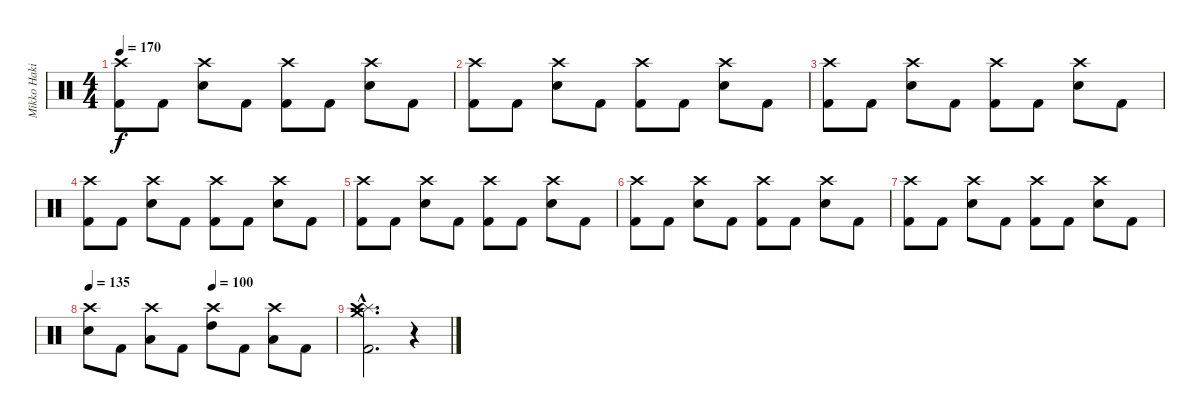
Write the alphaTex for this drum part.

\track ("Mikko Hakila - drums" "Mikko Haki") {instrument percussion}
\staff {score}
\articulation defaults
\ts (4 4)
\tempo 170
\clef neutral
\ks c
("Crash high (hit)" "Kick (hit) 2").8{dy f} "Kick (hit) 2".8 ("Crash high (hit)" "Snare (hit) 2").8 "Kick (hit) 2".8 ("Crash high (hit)" "Kick (hit) 2").8 "Kick (hit) 2".8 ("Crash high (hit)" "Snare (hit) 2").8 "Kick (hit) 2".8 |
("Crash high (hit)" "Kick (hit) 2").8 "Kick (hit) 2".8 ("Crash high (hit)" "Snare (hit) 2").8 "Kick (hit) 2".8 ("Crash high (hit)" "Kick (hit) 2").8 "Kick (hit) 2".8 ("Crash high (hit)" "Snare (hit) 2").8 "Kick (hit) 2".8 |
("Crash high (hit)" "Kick (hit) 2").8 "Kick (hit) 2".8 ("Crash high (hit)" "Snare (hit) 2").8 "Kick (hit) 2".8 ("Crash high (hit)" "Kick (hit) 2").8 "Kick (hit) 2".8 ("Crash high (hit)" "Snare (hit) 2").8 "Kick (hit) 2".8 |
("Crash high (hit)" "Kick (hit) 2").8 "Kick (hit) 2".8 ("Crash high (hit)" "Snare (hit) 2").8 "Kick (hit) 2".8 ("Crash high (hit)" "Kick (hit) 2").8 "Kick (hit) 2".8 ("Crash high (hit)" "Snare (hit) 2").8 "Kick (hit) 2".8 |
("Crash high (hit)" "Kick (hit) 2").8 "Kick (hit) 2".8 ("Crash high (hit)" "Snare (hit) 2").8 "Kick (hit) 2".8 ("Crash high (hit)" "Kick (hit) 2").8 "Kick (hit) 2".8 ("Crash high (hit)" "Snare (hit) 2").8 "Kick (hit) 2".8 |
("Crash high (hit)" "Kick (hit) 2").8 "Kick (hit) 2".8 ("Crash high (hit)" "Snare (hit) 2").8 "Kick (hit) 2".8 ("Crash high (hit)" "Kick (hit) 2").8 "Kick (hit) 2".8 ("Crash high (hit)" "Snare (hit) 2").8 "Kick (hit) 2".8 |
("Crash high (hit)" "Kick (hit) 2").8 "Kick (hit) 2".8 ("Crash high (hit)" "Snare (hit) 2").8 "Kick (hit) 2".8 ("Crash high (hit)" "Kick (hit) 2").8 "Kick (hit) 2".8 ("Crash high (hit)" "Snare (hit) 2").8 "Kick (hit) 2".8 |
\tempo 135
\tempo (100 0.5)
("Crash high (hit)" "Snare (hit) 2").8 "Kick (hit) 2".8 ("Crash high (hit)" "Low Tom (hit)").8 "Kick (hit) 2".8 ("Crash high (hit)" "High Tom (hit)").8 "Kick (hit) 2".8 ("Crash high (hit)" "Low Tom (hit)").8 "Kick (hit) 2".8 |
("Splash (hit)"{hac} "Crash high (hit)"{hac} "Crash medium (hit)"{hac} "Kick (hit) 2"{hac}).2{d} r.4
